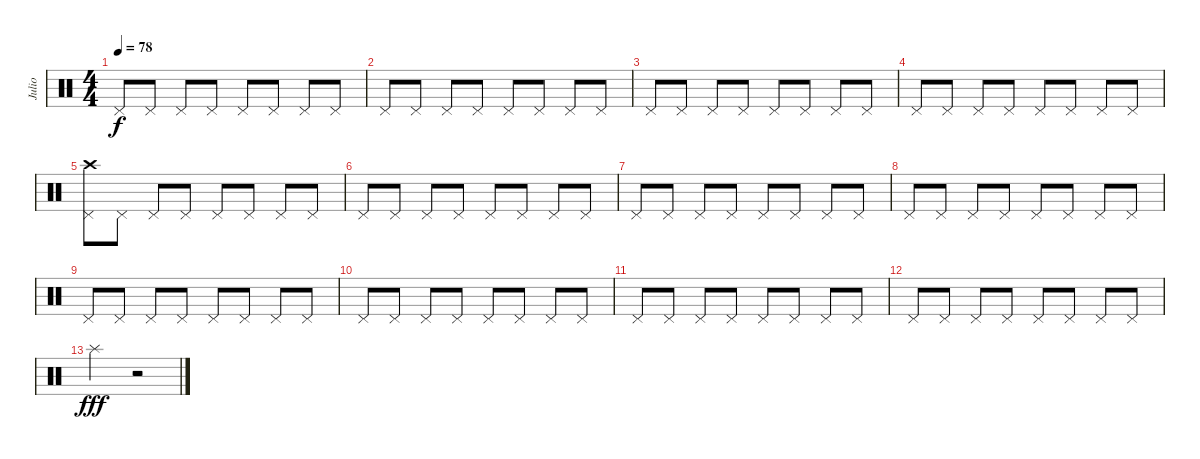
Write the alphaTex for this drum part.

\track ("Julio" "Julio") {instrument percussion}
\staff {score}
\articulation defaults
\ts (4 4)
\tempo 78
\clef neutral
\ks c "Pedal Hi-Hat (hit)".8{dy f} "Pedal Hi-Hat (hit)".8 "Pedal Hi-Hat (hit)".8 "Pedal Hi-Hat (hit)".8 "Pedal Hi-Hat (hit)".8 "Pedal Hi-Hat (hit)".8 "Pedal Hi-Hat (hit)".8 "Pedal Hi-Hat (hit)".8
|
"Pedal Hi-Hat (hit)".8 "Pedal Hi-Hat (hit)".8 "Pedal Hi-Hat (hit)".8 "Pedal Hi-Hat (hit)".8 "Pedal Hi-Hat (hit)".8 "Pedal Hi-Hat (hit)".8 "Pedal Hi-Hat (hit)".8 "Pedal Hi-Hat (hit)".8 |
"Pedal Hi-Hat (hit)".8 "Pedal Hi-Hat (hit)".8 "Pedal Hi-Hat (hit)".8 "Pedal Hi-Hat (hit)".8 "Pedal Hi-Hat (hit)".8 "Pedal Hi-Hat (hit)".8 "Pedal Hi-Hat (hit)".8 "Pedal Hi-Hat (hit)".8 |
"Pedal Hi-Hat (hit)".8 "Pedal Hi-Hat (hit)".8 "Pedal Hi-Hat (hit)".8 "Pedal Hi-Hat (hit)".8 "Pedal Hi-Hat (hit)".8 "Pedal Hi-Hat (hit)".8 "Pedal Hi-Hat (hit)".8 "Pedal Hi-Hat (hit)".8 |
("Crash high (hit)" "Pedal Hi-Hat (hit)").8 "Pedal Hi-Hat (hit)".8 "Pedal Hi-Hat (hit)".8 "Pedal Hi-Hat (hit)".8 "Pedal Hi-Hat (hit)".8 "Pedal Hi-Hat (hit)".8 "Pedal Hi-Hat (hit)".8 "Pedal Hi-Hat (hit)".8 |
"Pedal Hi-Hat (hit)".8 "Pedal Hi-Hat (hit)".8 "Pedal Hi-Hat (hit)".8 "Pedal Hi-Hat (hit)".8 "Pedal Hi-Hat (hit)".8 "Pedal Hi-Hat (hit)".8 "Pedal Hi-Hat (hit)".8 "Pedal Hi-Hat (hit)".8 |
"Pedal Hi-Hat (hit)".8 "Pedal Hi-Hat (hit)".8 "Pedal Hi-Hat (hit)".8 "Pedal Hi-Hat (hit)".8 "Pedal Hi-Hat (hit)".8 "Pedal Hi-Hat (hit)".8 "Pedal Hi-Hat (hit)".8 "Pedal Hi-Hat (hit)".8 |
"Pedal Hi-Hat (hit)".8 "Pedal Hi-Hat (hit)".8 "Pedal Hi-Hat (hit)".8 "Pedal Hi-Hat (hit)".8 "Pedal Hi-Hat (hit)".8 "Pedal Hi-Hat (hit)".8 "Pedal Hi-Hat (hit)".8 "Pedal Hi-Hat (hit)".8 |
"Pedal Hi-Hat (hit)".8 "Pedal Hi-Hat (hit)".8 "Pedal Hi-Hat (hit)".8 "Pedal Hi-Hat (hit)".8 "Pedal Hi-Hat (hit)".8 "Pedal Hi-Hat (hit)".8 "Pedal Hi-Hat (hit)".8 "Pedal Hi-Hat (hit)".8 |
"Pedal Hi-Hat (hit)".8 "Pedal Hi-Hat (hit)".8 "Pedal Hi-Hat (hit)".8 "Pedal Hi-Hat (hit)".8 "Pedal Hi-Hat (hit)".8 "Pedal Hi-Hat (hit)".8 "Pedal Hi-Hat (hit)".8 "Pedal Hi-Hat (hit)".8 |
"Pedal Hi-Hat (hit)".8 "Pedal Hi-Hat (hit)".8 "Pedal Hi-Hat (hit)".8 "Pedal Hi-Hat (hit)".8 "Pedal Hi-Hat (hit)".8 "Pedal Hi-Hat (hit)".8 "Pedal Hi-Hat (hit)".8 "Pedal Hi-Hat (hit)".8 |
"Pedal Hi-Hat (hit)".8 "Pedal Hi-Hat (hit)".8 "Pedal Hi-Hat (hit)".8 "Pedal Hi-Hat (hit)".8 "Pedal Hi-Hat (hit)".8 "Pedal Hi-Hat (hit)".8 "Pedal Hi-Hat (hit)".8 "Pedal Hi-Hat (hit)".8 |
"Splash (hit)".2{dy fff} r.2
